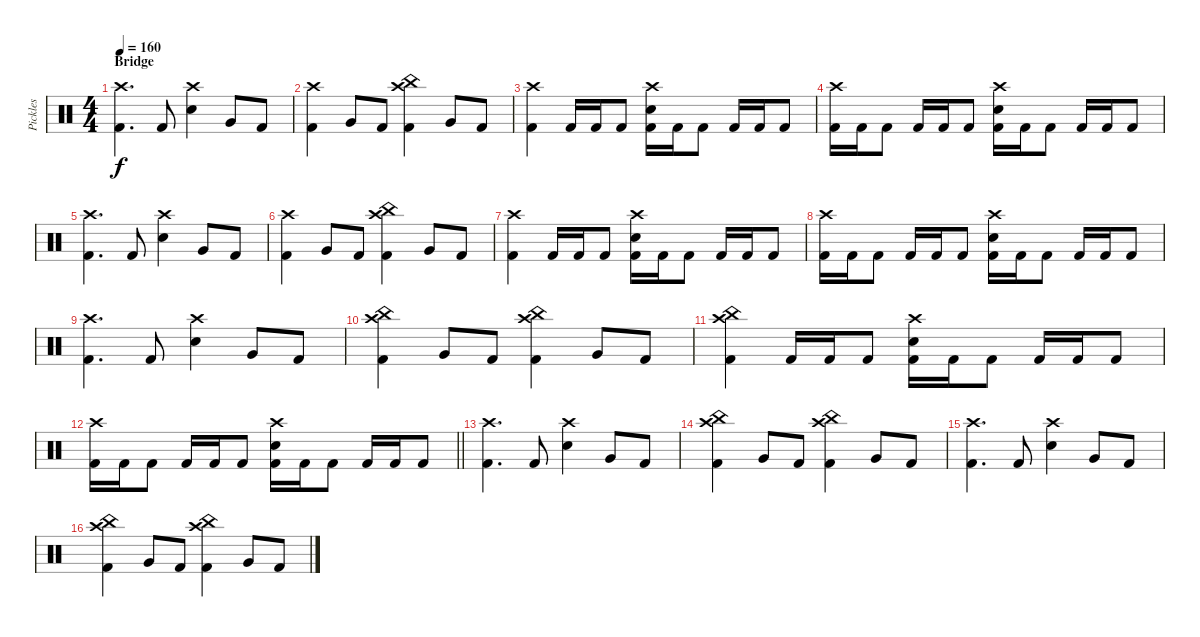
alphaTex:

\track ("Pickles" "Pickles") {instrument percussion}
\staff {score}
\articulation defaults
\ts (4 4)
\section ("" "Bridge")
\tempo 160
\clef neutral
\ks c
("Crash high (hit)" "Kick (hit) 2").4{d dy f} "Kick (hit) 2".8 ("Crash high (hit)" "Electric Snare (hit)").4 "Very Low Tom (hit)".8 "Kick (hit) 2".8 |
("Crash high (hit)" "Kick (hit) 2").4 "Very Low Tom (hit)".8 "Kick (hit) 2".8 ("Crash high (hit)" "China (hit)" "Kick (hit) 2").4 "Very Low Tom (hit)".8 "Kick (hit) 2".8 |
("Crash high (hit)" "Kick (hit) 2").4 "Kick (hit) 2".16 "Kick (hit) 2".16 "Kick (hit) 2".8 ("Crash high (hit)" "Electric Snare (hit)" "Kick (hit) 2").16 "Kick (hit) 2".16 "Kick (hit) 2".8 "Kick (hit) 2".16 "Kick (hit) 2".16 "Kick (hit) 2".8 |
("Crash high (hit)" "Kick (hit) 2").16 "Kick (hit) 2".16 "Kick (hit) 2".8 "Kick (hit) 2".16 "Kick (hit) 2".16 "Kick (hit) 2".8 ("Crash high (hit)" "Electric Snare (hit)" "Kick (hit) 2").16 "Kick (hit) 2".16 "Kick (hit) 2".8 "Kick (hit) 2".16 "Kick (hit) 2".16 "Kick (hit) 2".8 |
("Crash high (hit)" "Kick (hit) 2").4{d} "Kick (hit) 2".8 ("Crash high (hit)" "Electric Snare (hit)").4 "Very Low Tom (hit)".8 "Kick (hit) 2".8 |
("Crash high (hit)" "Kick (hit) 2").4 "Very Low Tom (hit)".8 "Kick (hit) 2".8 ("Crash high (hit)" "China (hit)" "Kick (hit) 2").4 "Very Low Tom (hit)".8 "Kick (hit) 2".8 |
("Crash high (hit)" "Kick (hit) 2").4 "Kick (hit) 2".16 "Kick (hit) 2".16 "Kick (hit) 2".8 ("Crash high (hit)" "Electric Snare (hit)" "Kick (hit) 2").16 "Kick (hit) 2".16 "Kick (hit) 2".8 "Kick (hit) 2".16 "Kick (hit) 2".16 "Kick (hit) 2".8 |
("Crash high (hit)" "Kick (hit) 2").16 "Kick (hit) 2".16 "Kick (hit) 2".8 "Kick (hit) 2".16 "Kick (hit) 2".16 "Kick (hit) 2".8 ("Crash high (hit)" "Electric Snare (hit)" "Kick (hit) 2").16 "Kick (hit) 2".16 "Kick (hit) 2".8 "Kick (hit) 2".16 "Kick (hit) 2".16 "Kick (hit) 2".8 |
("Crash high (hit)" "Kick (hit) 2").4{d} "Kick (hit) 2".8 ("Crash high (hit)" "Electric Snare (hit)").4 "Very Low Tom (hit)".8 "Kick (hit) 2".8 |
("Crash high (hit)" "China (hit)" "Kick (hit) 2").4 "Very Low Tom (hit)".8 "Kick (hit) 2".8 ("Crash high (hit)" "China (hit)" "Kick (hit) 2").4 "Very Low Tom (hit)".8 "Kick (hit) 2".8 |
("Crash high (hit)" "China (hit)" "Kick (hit) 2").4 "Kick (hit) 2".16 "Kick (hit) 2".16 "Kick (hit) 2".8 ("Crash high (hit)" "Electric Snare (hit)" "Kick (hit) 2").16 "Kick (hit) 2".16 "Kick (hit) 2".8 "Kick (hit) 2".16 "Kick (hit) 2".16 "Kick (hit) 2".8 |
\barLineRight lightlight
("Crash high (hit)" "Kick (hit) 2").16 "Kick (hit) 2".16 "Kick (hit) 2".8 "Kick (hit) 2".16 "Kick (hit) 2".16 "Kick (hit) 2".8 ("Crash high (hit)" "Electric Snare (hit)" "Kick (hit) 2").16 "Kick (hit) 2".16 "Kick (hit) 2".8 "Kick (hit) 2".16 "Kick (hit) 2".16 "Kick (hit) 2".8 |
("Crash high (hit)" "Kick (hit) 2").4{d} "Kick (hit) 2".8 ("Crash high (hit)" "Electric Snare (hit)").4 "Very Low Tom (hit)".8 "Kick (hit) 2".8 |
("Crash high (hit)" "China (hit)" "Kick (hit) 2").4 "Very Low Tom (hit)".8 "Kick (hit) 2".8 ("Crash high (hit)" "China (hit)" "Kick (hit) 2").4 "Very Low Tom (hit)".8 "Kick (hit) 2".8 |
("Crash high (hit)" "Kick (hit) 2").4{d} "Kick (hit) 2".8 ("Crash high (hit)" "Electric Snare (hit)").4 "Very Low Tom (hit)".8 "Kick (hit) 2".8 |
("Crash high (hit)" "China (hit)" "Kick (hit) 2").4 "Very Low Tom (hit)".8 "Kick (hit) 2".8 ("Crash high (hit)" "China (hit)" "Kick (hit) 2").4 "Very Low Tom (hit)".8 "Kick (hit) 2".8
